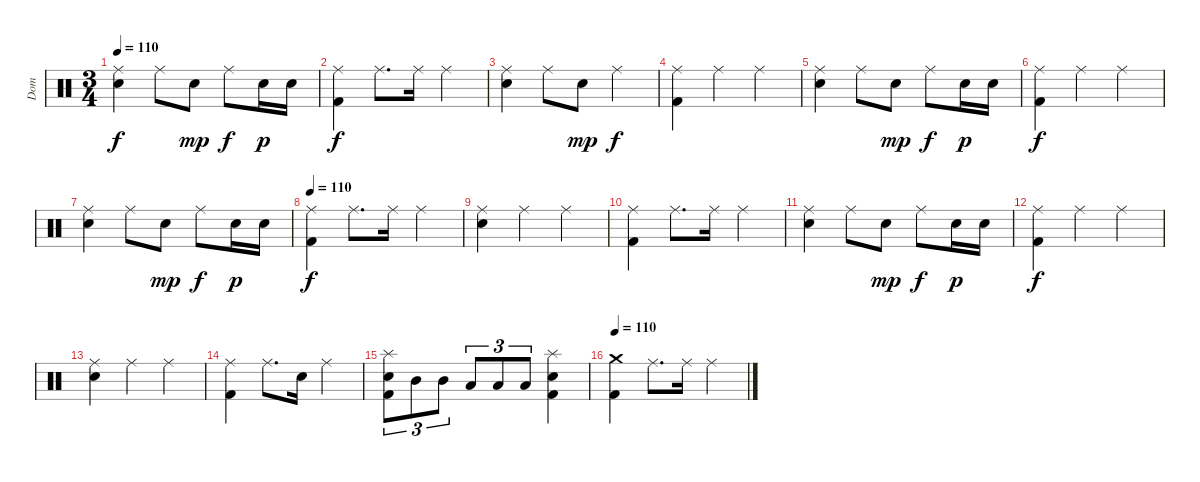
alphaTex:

\track ("Dom" "Dom") {instrument percussion}
\staff {score}
\articulation defaults
\ts (3 4)
\tempo 110
\clef neutral
\ks c
("Ride (middle)" "Snare (hit) 2").4{dy f} "Ride (middle)".8 "Snare (hit) 2".8{dy mp} "Ride (middle)".8{dy f} "Snare (hit) 2".16{dy p} "Snare (hit) 2".16 |
("Ride (middle)" "Kick (hit) 2").4{dy f} "Ride (middle)".8{d} "Ride (middle)".16 "Ride (middle)".4 |
("Ride (middle)" "Snare (hit) 2").4 "Ride (middle)".8 "Snare (hit) 2".8{dy mp} "Ride (middle)".4{dy f} |
("Ride (middle)" "Kick (hit) 2").4 "Ride (middle)".4 "Ride (middle)".4 |
("Ride (middle)" "Snare (hit) 2").4 "Ride (middle)".8 "Snare (hit) 2".8{dy mp} "Ride (middle)".8{dy f} "Snare (hit) 2".16{dy p} "Snare (hit) 2".16 |
("Ride (middle)" "Kick (hit) 2").4{dy f} "Ride (middle)".4 "Ride (middle)".4 |
("Ride (middle)" "Snare (hit) 2").4 "Ride (middle)".8 "Snare (hit) 2".8{dy mp} "Ride (middle)".8{dy f} "Snare (hit) 2".16{dy p} "Snare (hit) 2".16 |
\tempo 110
("Ride (middle)" "Kick (hit) 2").4{dy f} "Ride (middle)".8{d} "Ride (middle)".16 "Ride (middle)".4 |
("Ride (middle)" "Snare (hit) 2").4 "Ride (middle)".4 "Ride (middle)".4 |
("Ride (middle)" "Kick (hit) 2").4 "Ride (middle)".8{d} "Ride (middle)".16 "Ride (middle)".4 |
("Ride (middle)" "Snare (hit) 2").4 "Ride (middle)".8 "Snare (hit) 2".8{dy mp} "Ride (middle)".8{dy f} "Snare (hit) 2".16{dy p} "Snare (hit) 2".16 |
("Ride (middle)" "Kick (hit) 2").4{dy f} "Ride (middle)".4 "Ride (middle)".4 |
("Ride (middle)" "Snare (hit) 2").4 "Ride (middle)".4 "Ride (middle)".4 |
("Ride (middle)" "Kick (hit) 2").4 "Ride (middle)".8{d} "Snare (hit) 2".16 "Ride (middle)".4 |
("Splash (hit)" "Snare (hit) 2" "Kick (hit) 2").8{tu (3 2)} "Mid Tom (hit)".8{tu (3 2)} "Mid Tom (hit)".8{tu (3 2)} "Low Tom (hit)".8{tu (3 2)} "Low Tom (hit)".8{tu (3 2)} "Low Tom (hit)".8{tu (3 2)} ("Splash (hit)" "Snare (hit) 2" "Kick (hit) 2").4 |
\tempo 110
("Crash medium (hit)" "Kick (hit) 2").4 "Ride (middle)".8{d} "Ride (middle)".16 "Ride (middle)".4
